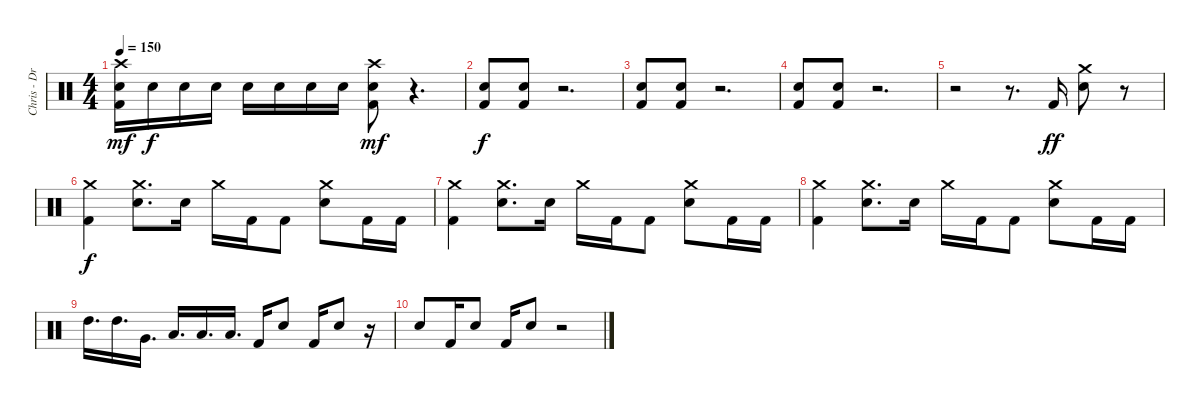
\track ("Chris - Drums" "Chris - Dr") {instrument percussion}
\staff {score}
\articulation defaults
\ts (4 4)
\tempo 150
\clef neutral
\ks c
("Crash high (hit)" "Electric Snare (hit)" "Kick (hit) 2").16{dy mf} "Electric Snare (hit)".16{dy f} "Electric Snare (hit)".16 "Electric Snare (hit)".16 "Electric Snare (hit)".16 "Electric Snare (hit)".16 "Electric Snare (hit)".16 "Electric Snare (hit)".16 ("Crash high (hit)" "Electric Snare (hit)" "Kick (hit) 2").8{dy mf} r.4{d} |
("Electric Snare (hit)" "Kick (hit) 2").8{dy f} ("Electric Snare (hit)" "Kick (hit) 2").8 r.2{d} |
("Electric Snare (hit)" "Kick (hit) 2").8 ("Electric Snare (hit)" "Kick (hit) 2").8 r.2{d} |
("Electric Snare (hit)" "Kick (hit) 2").8 ("Electric Snare (hit)" "Kick (hit) 2").8 r.2{d} |
r.2 r.8{d} "Kick (hit) 2".16{dy ff} ("Crash medium (hit)" "Electric Snare (hit)").8 r.8 |
("Crash medium (hit)" "Kick (hit) 2").4{dy f} ("Crash medium (hit)" "Electric Snare (hit)").8{d} "Electric Snare (hit)".16 "Crash medium (hit)".16 "Kick (hit) 2".16 "Kick (hit) 2".8 ("Crash medium (hit)" "Electric Snare (hit)").8 "Kick (hit) 2".16 "Kick (hit) 2".16 |
("Crash medium (hit)" "Kick (hit) 2").4 ("Crash medium (hit)" "Electric Snare (hit)").8{d} "Electric Snare (hit)".16 "Crash medium (hit)".16 "Kick (hit) 2".16 "Kick (hit) 2".8 ("Crash medium (hit)" "Electric Snare (hit)").8 "Kick (hit) 2".16 "Kick (hit) 2".16 |
("Crash medium (hit)" "Kick (hit) 2").4 ("Crash medium (hit)" "Electric Snare (hit)").8{d} "Electric Snare (hit)".16 "Crash medium (hit)".16 "Kick (hit) 2".16 "Kick (hit) 2".8 ("Crash medium (hit)" "Electric Snare (hit)").8 "Kick (hit) 2".16 "Kick (hit) 2".16 |
"High Tom (hit)".16{d} "High Tom (hit)".16{d} "Very Low Tom (hit)".16{d} "Low Tom (hit)".16{d} "Low Tom (hit)".16{d} "Low Floor Tom (hit)".16{d} "Kick (hit) 2".16 "Electric Snare (hit)".8 "Kick (hit) 2".16 "Electric Snare (hit)".8 r.16 |
"Electric Snare (hit)".8 "Kick (hit) 2".16 "Electric Snare (hit)".8 "Kick (hit) 2".16 "Electric Snare (hit)".8 r.2
